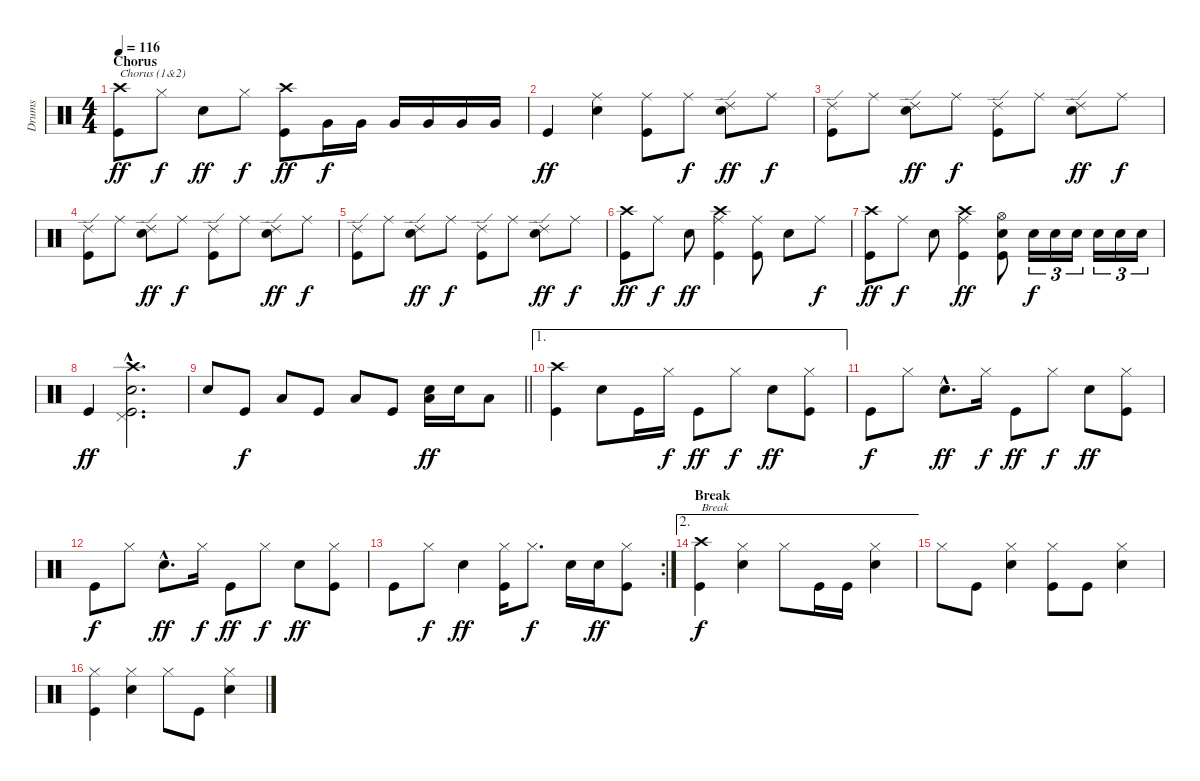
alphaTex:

\track ("Drums" "Drums") {instrument percussion}
\staff {score}
\articulation defaults
\ts (4 4)
\section ("" "Chorus")
\tempo 116
\clef neutral
\ks c
("Crash high (hit)" "Kick (hit)").8{txt "Chorus (1&2)" dy ff} "Hi-Hat (closed)".8{dy f} "Snare (hit) 2".8{dy ff} "Hi-Hat (closed)".8{dy f} ("Crash high (hit)" "Kick (hit)").8{dy ff} "Very Low Tom (hit)".16{dy f} "Very Low Tom (hit)".16 "Very Low Tom (hit)".16 "Very Low Tom (hit)".16 "Very Low Tom (hit)".16 "Very Low Tom (hit)".16 |
"Kick (hit)".4{dy ff} ("Ride (middle)" "Snare (hit) 2").4 ("Ride (middle)" "Kick (hit)").8 "Ride (middle)".8{dy f} ("Ride (edge) 2" "Snare (hit) 2").8{dy ff} "Ride (middle)".8{dy f} |
("Ride (edge) 2" "Kick (hit)").8 "Ride (middle)".8 ("Ride (edge) 2" "Snare (hit) 2").8{dy ff} "Ride (middle)".8{dy f} ("Ride (edge) 2" "Kick (hit)").8 "Ride (middle)".8 ("Ride (edge) 2" "Snare (hit) 2").8{dy ff} "Ride (middle)".8{dy f} |
("Ride (edge) 2" "Kick (hit)").8 "Ride (middle)".8 ("Ride (edge) 2" "Snare (hit) 2").8{dy ff} "Ride (middle)".8{dy f} ("Ride (edge) 2" "Kick (hit)").8 "Ride (middle)".8 ("Ride (edge) 2" "Snare (hit) 2").8{dy ff} "Ride (middle)".8{dy f} |
("Ride (edge) 2" "Kick (hit)").8 "Ride (middle)".8 ("Ride (edge) 2" "Snare (hit) 2").8{dy ff} "Ride (middle)".8{dy f} ("Ride (edge) 2" "Kick (hit)").8 "Ride (middle)".8 ("Ride (edge) 2" "Snare (hit) 2").8{dy ff} "Ride (middle)".8{dy f} |
("Crash high (hit)" "Kick (hit)").8{dy ff} "Ride (middle)".8{dy f} "Snare (hit) 2".8{dy ff} ("Crash high (hit)" "Ride (middle)" "Kick (hit)").4 ("Ride (middle)" "Kick (hit)").8 "Snare (hit) 2".8 "Ride (middle)".8{dy f} |
("Crash high (hit)" "Kick (hit)").8{dy ff} "Ride (middle)".8{dy f} "Snare (hit) 2".8 ("Crash high (hit)" "Ride (middle)" "Kick (hit)").4{dy ff} ("Hi-Hat (open)" "Snare (hit) 2" "Kick (hit)").8 "Snare (hit) 2".16{tu (3 2) dy f} "Snare (hit) 2".16{tu (3 2)} "Snare (hit) 2".16{tu (3 2)} "Snare (hit) 2".16{tu (3 2)} "Snare (hit) 2".16{tu (3 2)} "Snare (hit) 2".16{tu (3 2)} |
"Kick (hit)".4{dy ff} ("Crash high (hit)" "Pedal Hi-Hat (hit)"{hac} "Snare (hit) 2"{hac} "Kick (hit)").2{d} |
\barLineRight lightlight "Snare (hit) 2".8 "Kick (hit)".8{dy f} "Low Tom (hit)".8 "Kick (hit)".8 "Low Tom (hit)".8 "Kick (hit)".8
("Snare (hit) 2" "Low Tom (hit)").16{dy ff} "Snare (hit) 2".16 "Low Tom (hit)".8 |
\ae 1
("Crash high (hit)" "Kick (hit)").4 "Snare (hit) 2".8 "Kick (hit)".16 "Hi-Hat (closed)".16{dy f} "Kick (hit)".8{dy ff} "Hi-Hat (closed)".8{dy f} "Snare (hit) 2".8{dy ff} ("Hi-Hat (closed)" "Kick (hit)").8 |
"Kick (hit)".8{dy f} "Hi-Hat (closed)".8 "Snare (hit) 2"{hac}.8{d dy ff} "Hi-Hat (closed)".16{dy f} "Kick (hit)".8{dy ff} "Hi-Hat (closed)".8{dy f} "Snare (hit) 2".8{dy ff} ("Hi-Hat (closed)" "Kick (hit)").8 |
"Kick (hit)".8{dy f} "Hi-Hat (closed)".8 "Snare (hit) 2"{hac}.8{d dy ff} "Hi-Hat (closed)".16{dy f} "Kick (hit)".8{dy ff} "Hi-Hat (closed)".8{dy f} "Snare (hit) 2".8{dy ff} ("Hi-Hat (closed)" "Kick (hit)").8 |
\rc 2 "Kick (hit)".8 "Hi-Hat (closed)".8{dy f} "Snare (hit) 2".4{dy ff}
("Hi-Hat (closed)" "Kick (hit)").16 "Hi-Hat (closed)".8{d dy f} "Snare (hit) 2".16 "Snare (hit) 2".16{dy ff} ("Hi-Hat (closed)" "Kick (hit)").8 |
\ae 2
\section ("" "Break")
("Crash high (hit)" "Kick (hit)").4{txt "Break" dy f} ("Hi-Hat (closed)" "Snare (hit) 2").4 "Hi-Hat (closed)".8 "Kick (hit)".16 "Kick (hit)".16 ("Hi-Hat (closed)" "Snare (hit) 2").4 |
"Hi-Hat (closed)".8 "Kick (hit)".8 ("Hi-Hat (closed)" "Snare (hit) 2").4 ("Hi-Hat (closed)" "Kick (hit)").8 "Kick (hit)".8 ("Hi-Hat (closed)" "Snare (hit) 2").4 |
("Hi-Hat (closed)" "Kick (hit)").4 ("Hi-Hat (closed)" "Snare (hit) 2").4 "Hi-Hat (closed)".8 "Kick (hit)".8 ("Hi-Hat (closed)" "Snare (hit) 2").4
